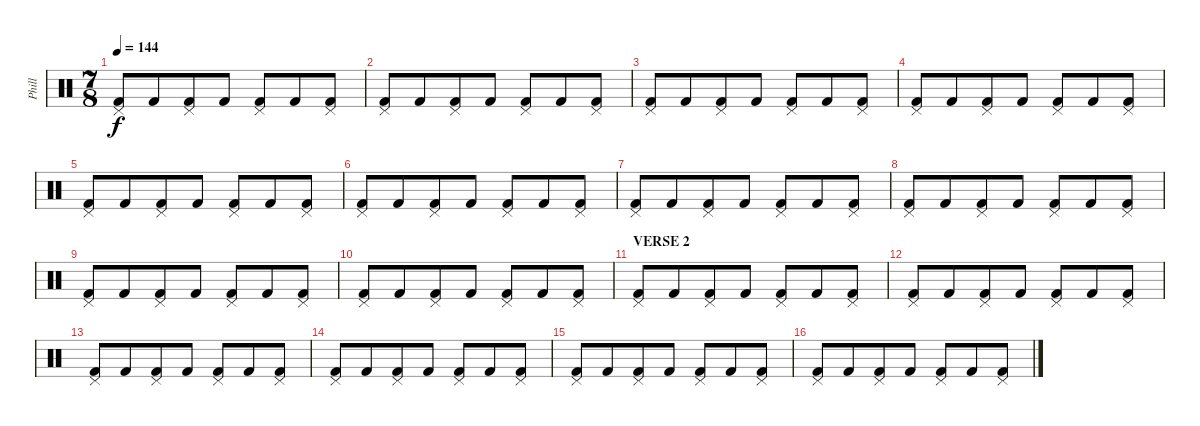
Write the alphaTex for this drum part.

\track ("Phill" "Phill") {instrument percussion}
\staff {score}
\articulation defaults
\ts (7 8)
\tempo 144
\clef neutral
\ks c
("Pedal Hi-Hat (hit)" "Kick (hit) 2").8{dy f} "Kick (hit) 2".8 ("Pedal Hi-Hat (hit)" "Kick (hit) 2").8 "Kick (hit) 2".8 ("Pedal Hi-Hat (hit)" "Kick (hit) 2").8 "Kick (hit) 2".8 ("Pedal Hi-Hat (hit)" "Kick (hit) 2").8 |
("Pedal Hi-Hat (hit)" "Kick (hit) 2").8 "Kick (hit) 2".8 ("Pedal Hi-Hat (hit)" "Kick (hit) 2").8 "Kick (hit) 2".8 ("Pedal Hi-Hat (hit)" "Kick (hit) 2").8 "Kick (hit) 2".8 ("Pedal Hi-Hat (hit)" "Kick (hit) 2").8 |
("Pedal Hi-Hat (hit)" "Kick (hit) 2").8 "Kick (hit) 2".8 ("Pedal Hi-Hat (hit)" "Kick (hit) 2").8 "Kick (hit) 2".8 ("Pedal Hi-Hat (hit)" "Kick (hit) 2").8 "Kick (hit) 2".8 ("Pedal Hi-Hat (hit)" "Kick (hit) 2").8 |
("Pedal Hi-Hat (hit)" "Kick (hit) 2").8 "Kick (hit) 2".8 ("Pedal Hi-Hat (hit)" "Kick (hit) 2").8 "Kick (hit) 2".8 ("Pedal Hi-Hat (hit)" "Kick (hit) 2").8 "Kick (hit) 2".8 ("Pedal Hi-Hat (hit)" "Kick (hit) 2").8 |
("Pedal Hi-Hat (hit)" "Kick (hit) 2").8 "Kick (hit) 2".8 ("Pedal Hi-Hat (hit)" "Kick (hit) 2").8 "Kick (hit) 2".8 ("Pedal Hi-Hat (hit)" "Kick (hit) 2").8 "Kick (hit) 2".8 ("Pedal Hi-Hat (hit)" "Kick (hit) 2").8 |
("Pedal Hi-Hat (hit)" "Kick (hit) 2").8 "Kick (hit) 2".8 ("Pedal Hi-Hat (hit)" "Kick (hit) 2").8 "Kick (hit) 2".8 ("Pedal Hi-Hat (hit)" "Kick (hit) 2").8 "Kick (hit) 2".8 ("Pedal Hi-Hat (hit)" "Kick (hit) 2").8 |
("Pedal Hi-Hat (hit)" "Kick (hit) 2").8 "Kick (hit) 2".8 ("Pedal Hi-Hat (hit)" "Kick (hit) 2").8 "Kick (hit) 2".8 ("Pedal Hi-Hat (hit)" "Kick (hit) 2").8 "Kick (hit) 2".8 ("Pedal Hi-Hat (hit)" "Kick (hit) 2").8 |
("Pedal Hi-Hat (hit)" "Kick (hit) 2").8 "Kick (hit) 2".8 ("Pedal Hi-Hat (hit)" "Kick (hit) 2").8 "Kick (hit) 2".8 ("Pedal Hi-Hat (hit)" "Kick (hit) 2").8 "Kick (hit) 2".8 ("Pedal Hi-Hat (hit)" "Kick (hit) 2").8 |
("Pedal Hi-Hat (hit)" "Kick (hit) 2").8 "Kick (hit) 2".8 ("Pedal Hi-Hat (hit)" "Kick (hit) 2").8 "Kick (hit) 2".8 ("Pedal Hi-Hat (hit)" "Kick (hit) 2").8 "Kick (hit) 2".8 ("Pedal Hi-Hat (hit)" "Kick (hit) 2").8 |
("Pedal Hi-Hat (hit)" "Kick (hit) 2").8 "Kick (hit) 2".8 ("Pedal Hi-Hat (hit)" "Kick (hit) 2").8 "Kick (hit) 2".8 ("Pedal Hi-Hat (hit)" "Kick (hit) 2").8 "Kick (hit) 2".8 ("Pedal Hi-Hat (hit)" "Kick (hit) 2").8 |
\section ("" "VERSE 2")
("Pedal Hi-Hat (hit)" "Kick (hit) 2").8 "Kick (hit) 2".8 ("Pedal Hi-Hat (hit)" "Kick (hit) 2").8 "Kick (hit) 2".8 ("Pedal Hi-Hat (hit)" "Kick (hit) 2").8 "Kick (hit) 2".8 ("Pedal Hi-Hat (hit)" "Kick (hit) 2").8 |
("Pedal Hi-Hat (hit)" "Kick (hit) 2").8 "Kick (hit) 2".8 ("Pedal Hi-Hat (hit)" "Kick (hit) 2").8 "Kick (hit) 2".8 ("Pedal Hi-Hat (hit)" "Kick (hit) 2").8 "Kick (hit) 2".8 ("Pedal Hi-Hat (hit)" "Kick (hit) 2").8 |
("Pedal Hi-Hat (hit)" "Kick (hit) 2").8 "Kick (hit) 2".8 ("Pedal Hi-Hat (hit)" "Kick (hit) 2").8 "Kick (hit) 2".8 ("Pedal Hi-Hat (hit)" "Kick (hit) 2").8 "Kick (hit) 2".8 ("Pedal Hi-Hat (hit)" "Kick (hit) 2").8 |
("Pedal Hi-Hat (hit)" "Kick (hit) 2").8 "Kick (hit) 2".8 ("Pedal Hi-Hat (hit)" "Kick (hit) 2").8 "Kick (hit) 2".8 ("Pedal Hi-Hat (hit)" "Kick (hit) 2").8 "Kick (hit) 2".8 ("Pedal Hi-Hat (hit)" "Kick (hit) 2").8 |
("Pedal Hi-Hat (hit)" "Kick (hit) 2").8 "Kick (hit) 2".8 ("Pedal Hi-Hat (hit)" "Kick (hit) 2").8 "Kick (hit) 2".8 ("Pedal Hi-Hat (hit)" "Kick (hit) 2").8 "Kick (hit) 2".8 ("Pedal Hi-Hat (hit)" "Kick (hit) 2").8 |
("Pedal Hi-Hat (hit)" "Kick (hit) 2").8 "Kick (hit) 2".8 ("Pedal Hi-Hat (hit)" "Kick (hit) 2").8 "Kick (hit) 2".8 ("Pedal Hi-Hat (hit)" "Kick (hit) 2").8 "Kick (hit) 2".8 ("Pedal Hi-Hat (hit)" "Kick (hit) 2").8
